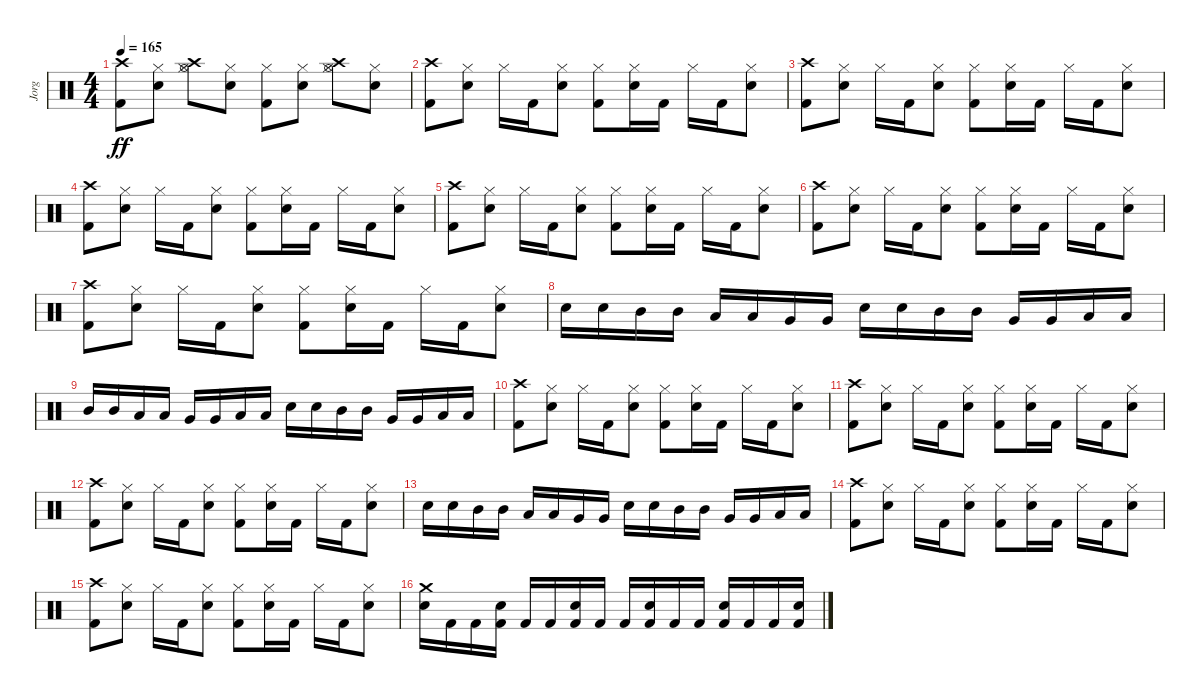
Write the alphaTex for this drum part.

\track ("Jorg" "Jorg") {instrument percussion}
\staff {score}
\articulation defaults
\ts (4 4)
\tempo 165
\clef neutral
\ks c
("Kick (hit) 2" "Crash high (hit)").8{dy ff} ("Snare (hit) 2" "Hi-Hat (closed)").8 ("Hi-Hat (open)" "Crash high (hit)" "Hi-Hat (closed)").8 ("Snare (hit) 2" "Hi-Hat (closed)").8 ("Kick (hit) 2" "Hi-Hat (closed)").8 ("Snare (hit) 2" "Hi-Hat (closed)").8 ("Hi-Hat (open)" "Crash high (hit)" "Hi-Hat (closed)").8 ("Snare (hit) 2" "Hi-Hat (closed)").8 |
("Kick (hit) 2" "Crash high (hit)").8 ("Snare (hit) 2" "Hi-Hat (closed)").8 "Hi-Hat (closed)".16 "Kick (hit) 2".16 ("Snare (hit) 2" "Hi-Hat (closed)").8 ("Kick (hit) 2" "Hi-Hat (closed)").8 ("Snare (hit) 2" "Hi-Hat (closed)").16 "Kick (hit) 2".16 "Hi-Hat (closed)".16 "Kick (hit) 2".16 ("Snare (hit) 2" "Hi-Hat (closed)").8 |
("Kick (hit) 2" "Crash high (hit)").8 ("Snare (hit) 2" "Hi-Hat (closed)").8 "Hi-Hat (closed)".16 "Kick (hit) 2".16 ("Snare (hit) 2" "Hi-Hat (closed)").8 ("Kick (hit) 2" "Hi-Hat (closed)").8 ("Snare (hit) 2" "Hi-Hat (closed)").16 "Kick (hit) 2".16 "Hi-Hat (closed)".16 "Kick (hit) 2".16 ("Snare (hit) 2" "Hi-Hat (closed)").8 |
("Kick (hit) 2" "Crash high (hit)").8 ("Snare (hit) 2" "Hi-Hat (closed)").8 "Hi-Hat (closed)".16 "Kick (hit) 2".16 ("Snare (hit) 2" "Hi-Hat (closed)").8 ("Kick (hit) 2" "Hi-Hat (closed)").8 ("Snare (hit) 2" "Hi-Hat (closed)").16 "Kick (hit) 2".16 "Hi-Hat (closed)".16 "Kick (hit) 2".16 ("Snare (hit) 2" "Hi-Hat (closed)").8 |
("Kick (hit) 2" "Crash high (hit)").8 ("Snare (hit) 2" "Hi-Hat (closed)").8 "Hi-Hat (closed)".16 "Kick (hit) 2".16 ("Snare (hit) 2" "Hi-Hat (closed)").8 ("Kick (hit) 2" "Hi-Hat (closed)").8 ("Snare (hit) 2" "Hi-Hat (closed)").16 "Kick (hit) 2".16 "Hi-Hat (closed)".16 "Kick (hit) 2".16 ("Snare (hit) 2" "Hi-Hat (closed)").8 |
("Kick (hit) 2" "Crash high (hit)").8 ("Snare (hit) 2" "Hi-Hat (closed)").8 "Hi-Hat (closed)".16 "Kick (hit) 2".16 ("Snare (hit) 2" "Hi-Hat (closed)").8 ("Kick (hit) 2" "Hi-Hat (closed)").8 ("Snare (hit) 2" "Hi-Hat (closed)").16 "Kick (hit) 2".16 "Hi-Hat (closed)".16 "Kick (hit) 2".16 ("Snare (hit) 2" "Hi-Hat (closed)").8 |
("Kick (hit) 2" "Crash high (hit)").8 ("Snare (hit) 2" "Hi-Hat (closed)").8 "Hi-Hat (closed)".16 "Kick (hit) 2".16 ("Snare (hit) 2" "Hi-Hat (closed)").8 ("Kick (hit) 2" "Hi-Hat (closed)").8 ("Snare (hit) 2" "Hi-Hat (closed)").16 "Kick (hit) 2".16 "Hi-Hat (closed)".16 "Kick (hit) 2".16 ("Snare (hit) 2" "Hi-Hat (closed)").8 |
"Electric Snare (hit)".16 "Electric Snare (hit)".16 "Mid Tom (hit)".16 "Mid Tom (hit)".16 "Low Tom (hit)".16 "Low Tom (hit)".16 "Very Low Tom (hit)".16 "Very Low Tom (hit)".16 "Electric Snare (hit)".16 "Electric Snare (hit)".16 "Mid Tom (hit)".16 "Mid Tom (hit)".16 "Very Low Tom (hit)".16 "Very Low Tom (hit)".16 "Low Floor Tom (hit)".16 "Low Floor Tom (hit)".16 |
"Mid Tom (hit)".16 "Mid Tom (hit)".16 "Low Tom (hit)".16 "Low Tom (hit)".16 "Very Low Tom (hit)".16 "Very Low Tom (hit)".16 "Low Floor Tom (hit)".16 "Low Floor Tom (hit)".16 "Electric Snare (hit)".16 "Electric Snare (hit)".16 "Mid Tom (hit)".16 "Mid Tom (hit)".16 "Very Low Tom (hit)".16 "Very Low Tom (hit)".16 "Low Floor Tom (hit)".16 "Low Floor Tom (hit)".16 |
("Kick (hit) 2" "Crash high (hit)").8 ("Snare (hit) 2" "Hi-Hat (closed)").8 "Hi-Hat (closed)".16 "Kick (hit) 2".16 ("Snare (hit) 2" "Hi-Hat (closed)").8 ("Kick (hit) 2" "Hi-Hat (closed)").8 ("Snare (hit) 2" "Hi-Hat (closed)").16 "Kick (hit) 2".16 "Hi-Hat (closed)".16 "Kick (hit) 2".16 ("Snare (hit) 2" "Hi-Hat (closed)").8 |
("Kick (hit) 2" "Crash high (hit)").8 ("Snare (hit) 2" "Hi-Hat (closed)").8 "Hi-Hat (closed)".16 "Kick (hit) 2".16 ("Snare (hit) 2" "Hi-Hat (closed)").8 ("Kick (hit) 2" "Hi-Hat (closed)").8 ("Snare (hit) 2" "Hi-Hat (closed)").16 "Kick (hit) 2".16 "Hi-Hat (closed)".16 "Kick (hit) 2".16 ("Snare (hit) 2" "Hi-Hat (closed)").8 |
("Kick (hit) 2" "Crash high (hit)").8 ("Snare (hit) 2" "Hi-Hat (closed)").8 "Hi-Hat (closed)".16 "Kick (hit) 2".16 ("Snare (hit) 2" "Hi-Hat (closed)").8 ("Kick (hit) 2" "Hi-Hat (closed)").8 ("Snare (hit) 2" "Hi-Hat (closed)").16 "Kick (hit) 2".16 "Hi-Hat (closed)".16 "Kick (hit) 2".16 ("Snare (hit) 2" "Hi-Hat (closed)").8 |
"Electric Snare (hit)".16 "Electric Snare (hit)".16 "Mid Tom (hit)".16 "Mid Tom (hit)".16 "Low Tom (hit)".16 "Low Tom (hit)".16 "Very Low Tom (hit)".16 "Very Low Tom (hit)".16 "Electric Snare (hit)".16 "Electric Snare (hit)".16 "Mid Tom (hit)".16 "Mid Tom (hit)".16 "Very Low Tom (hit)".16 "Very Low Tom (hit)".16 "Low Floor Tom (hit)".16 "Low Floor Tom (hit)".16 |
("Kick (hit) 2" "Crash high (hit)").8 ("Snare (hit) 2" "Hi-Hat (closed)").8 "Hi-Hat (closed)".16 "Kick (hit) 2".16 ("Snare (hit) 2" "Hi-Hat (closed)").8 ("Kick (hit) 2" "Hi-Hat (closed)").8 ("Snare (hit) 2" "Hi-Hat (closed)").16 "Kick (hit) 2".16 "Hi-Hat (closed)".16 "Kick (hit) 2".16 ("Snare (hit) 2" "Hi-Hat (closed)").8 |
("Kick (hit) 2" "Crash high (hit)").8 ("Snare (hit) 2" "Hi-Hat (closed)").8 "Hi-Hat (closed)".16 "Kick (hit) 2".16 ("Snare (hit) 2" "Hi-Hat (closed)").8 ("Kick (hit) 2" "Hi-Hat (closed)").8 ("Snare (hit) 2" "Hi-Hat (closed)").16 "Kick (hit) 2".16 "Hi-Hat (closed)".16 "Kick (hit) 2".16 ("Snare (hit) 2" "Hi-Hat (closed)").8 |
("Crash medium (hit)" "Electric Snare (hit)").16 "Kick (hit) 2".16 "Kick (hit) 2".16 ("Electric Snare (hit)" "Kick (hit) 2").16 "Kick (hit) 2".16 "Kick (hit) 2".16 ("Electric Snare (hit)" "Kick (hit) 2").16 "Kick (hit) 2".16 "Kick (hit) 2".16 ("Electric Snare (hit)" "Kick (hit) 2").16 "Kick (hit) 2".16 "Kick (hit) 2".16 ("Electric Snare (hit)" "Kick (hit) 2").16 "Kick (hit) 2".16 "Kick (hit) 2".16 ("Electric Snare (hit)" "Kick (hit) 2").16
